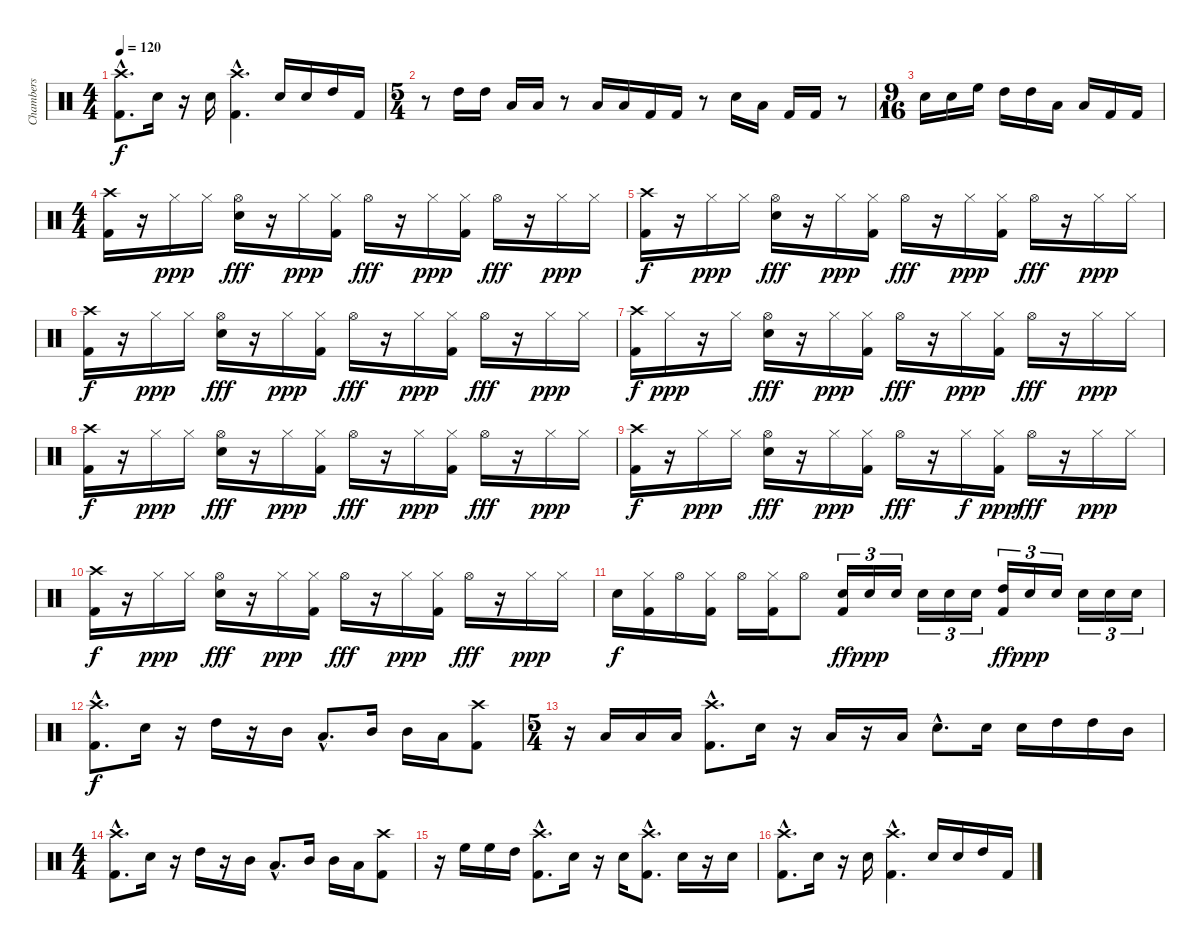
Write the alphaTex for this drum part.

\track ("Chambers" "Chambers") {instrument percussion}
\staff {score}
\articulation defaults
\ts (4 4)
\tempo 120
\clef neutral
\ks c
("Crash high (hit)"{hac} "Kick (hit) 2"{hac}).8{d dy f} "Electric Snare (hit)".16 r.16 "Electric Snare (hit)".16 ("Crash high (hit)"{hac} "Kick (hit) 2"{hac}).4{d} "Electric Snare (hit)".16 "Electric Snare (hit)".16 "High Tom (hit)".16 "Kick (hit) 2".16 |
\ts (5 4)
r.8 "High Tom (hit)".16 "High Tom (hit)".16 "Low Tom (hit)".16 "Low Tom (hit)".16 r.8 "Low Tom (hit)".16 "Low Tom (hit)".16 "Kick (hit) 2".16 "Kick (hit) 2".16 r.8 "Electric Snare (hit)".16 "Low Tom (hit)".16 "Kick (hit) 2".16 "Kick (hit) 2".16 r.8 |
\ts (9 16)
"Electric Snare (hit)".16 "Electric Snare (hit)".16 "High Floor Tom (hit)".16 "High Tom (hit)".16 "High Tom (hit)".16 "Low Tom (hit)".16 "Low Tom (hit)".16 "Kick (hit) 2".16 "Kick (hit) 2".16 |
\ts (4 4)
("Crash high (hit)" "Kick (hit) 2").16 r.16 "Hi-Hat (closed)".16{dy ppp} "Hi-Hat (closed)".16 ("Hi-Hat (open)" "Electric Snare (hit)").16{dy fff} r.16 "Hi-Hat (closed)".16{dy ppp} ("Hi-Hat (closed)" "Kick (hit) 2").16 "Hi-Hat (open)".16{dy fff} r.16 "Hi-Hat (closed)".16{dy ppp} ("Hi-Hat (closed)" "Kick (hit) 2").16 "Hi-Hat (open)".16{dy fff} r.16 "Hi-Hat (closed)".16{dy ppp} "Hi-Hat (closed)".16 |
("Crash high (hit)" "Kick (hit) 2").16{dy f} r.16 "Hi-Hat (closed)".16{dy ppp} "Hi-Hat (closed)".16 ("Hi-Hat (open)" "Electric Snare (hit)").16{dy fff} r.16 "Hi-Hat (closed)".16{dy ppp} ("Hi-Hat (closed)" "Kick (hit) 2").16 "Hi-Hat (open)".16{dy fff} r.16 "Hi-Hat (closed)".16{dy ppp} ("Hi-Hat (closed)" "Kick (hit) 2").16 "Hi-Hat (open)".16{dy fff} r.16 "Hi-Hat (closed)".16{dy ppp} "Hi-Hat (closed)".16 |
("Crash high (hit)" "Kick (hit) 2").16{dy f} r.16 "Hi-Hat (closed)".16{dy ppp} "Hi-Hat (closed)".16 ("Hi-Hat (open)" "Electric Snare (hit)").16{dy fff} r.16 "Hi-Hat (closed)".16{dy ppp} ("Hi-Hat (closed)" "Kick (hit) 2").16 "Hi-Hat (open)".16{dy fff} r.16 "Hi-Hat (closed)".16{dy ppp} ("Hi-Hat (closed)" "Kick (hit) 2").16 "Hi-Hat (open)".16{dy fff} r.16 "Hi-Hat (closed)".16{dy ppp} "Hi-Hat (closed)".16 |
("Crash high (hit)" "Kick (hit) 2").16{dy f} "Hi-Hat (closed)".16{dy ppp} r.16 "Hi-Hat (closed)".16 ("Hi-Hat (open)" "Electric Snare (hit)").16{dy fff} r.16 "Hi-Hat (closed)".16{dy ppp} ("Hi-Hat (closed)" "Kick (hit) 2").16 "Hi-Hat (open)".16{dy fff} r.16 "Hi-Hat (closed)".16{dy ppp} ("Hi-Hat (closed)" "Kick (hit) 2").16 "Hi-Hat (open)".16{dy fff} r.16 "Hi-Hat (closed)".16{dy ppp} "Hi-Hat (closed)".16 |
("Crash high (hit)" "Kick (hit) 2").16{dy f} r.16 "Hi-Hat (closed)".16{dy ppp} "Hi-Hat (closed)".16 ("Hi-Hat (open)" "Electric Snare (hit)").16{dy fff} r.16 "Hi-Hat (closed)".16{dy ppp} ("Hi-Hat (closed)" "Kick (hit) 2").16 "Hi-Hat (open)".16{dy fff} r.16 "Hi-Hat (closed)".16{dy ppp} ("Hi-Hat (closed)" "Kick (hit) 2").16 "Hi-Hat (open)".16{dy fff} r.16 "Hi-Hat (closed)".16{dy ppp} "Hi-Hat (closed)".16 |
("Crash high (hit)" "Kick (hit) 2").16{dy f} r.16 "Hi-Hat (closed)".16{dy ppp} "Hi-Hat (closed)".16 ("Hi-Hat (open)" "Electric Snare (hit)").16{dy fff} r.16 "Hi-Hat (closed)".16{dy ppp} ("Hi-Hat (closed)" "Kick (hit) 2").16 "Hi-Hat (open)".16{dy fff} r.16 "Hi-Hat (closed)".16{dy f} ("Hi-Hat (closed)" "Kick (hit) 2").16{dy ppp} "Hi-Hat (open)".16{dy fff} r.16 "Hi-Hat (closed)".16{dy ppp} "Hi-Hat (closed)".16 |
("Crash high (hit)" "Kick (hit) 2").16{dy f} r.16 "Hi-Hat (closed)".16{dy ppp} "Hi-Hat (closed)".16 ("Hi-Hat (open)" "Electric Snare (hit)").16{dy fff} r.16 "Hi-Hat (closed)".16{dy ppp} ("Hi-Hat (closed)" "Kick (hit) 2").16 "Hi-Hat (open)".16{dy fff} r.16 "Hi-Hat (closed)".16{dy ppp} ("Hi-Hat (closed)" "Kick (hit) 2").16 "Hi-Hat (open)".16{dy fff} r.16 "Hi-Hat (closed)".16{dy ppp} "Hi-Hat (closed)".16 |
"Electric Snare (hit)".16{dy f} ("Hi-Hat (closed)" "Kick (hit) 2").16 "Hi-Hat (open)".16 ("Hi-Hat (closed)" "Kick (hit) 2").16 "Hi-Hat (open)".16 ("Hi-Hat (closed)" "Kick (hit) 2").16 "Hi-Hat (open)".8 ("Electric Snare (hit)" "Kick (hit) 2").16{tu (3 2) dy ff} "Electric Snare (hit)".16{tu (3 2) dy ppp} "Electric Snare (hit)".16{tu (3 2)} "Electric Snare (hit)".16{tu (3 2)} "Electric Snare (hit)".16{tu (3 2)} "Electric Snare (hit)".16{tu (3 2)} ("High Tom (hit)" "Kick (hit) 2").16{tu (3 2) dy ff} "Electric Snare (hit)".16{tu (3 2) dy ppp} "Electric Snare (hit)".16{tu (3 2)} "Electric Snare (hit)".16{tu (3 2)} "Electric Snare (hit)".16{tu (3 2)} "Electric Snare (hit)".16{tu (3 2)} |
("Crash high (hit)"{hac} "Kick (hit) 2"{hac}).8{d dy f} "Electric Snare (hit)".16 r.16 "High Tom (hit)".16 r.16 "Mid Tom (hit)".16 "Low Tom (hit)"{hac}.8{d} "Mid Tom (hit)".16 "Mid Tom (hit)".16 "Low Tom (hit)".16 ("Crash high (hit)" "Kick (hit) 2").8 |
\ts (5 4)
r.16 "Low Tom (hit)".16 "Low Tom (hit)".16 "Low Tom (hit)".16 ("Crash high (hit)"{hac} "Kick (hit) 2"{hac}).8{d} "Electric Snare (hit)".16 r.16 "Low Tom (hit)".16 r.16 "Low Tom (hit)".16 "Electric Snare (hit)"{hac}.8{d} "Electric Snare (hit)".16 "Electric Snare (hit)".16 "High Tom (hit)".16 "High Tom (hit)".16 "Mid Tom (hit)".16 |
\ts (4 4)
("Crash high (hit)"{hac} "Kick (hit) 2"{hac}).8{d} "Electric Snare (hit)".16 r.16 "High Tom (hit)".16 r.16 "Mid Tom (hit)".16 "Low Tom (hit)"{hac}.8{d} "Mid Tom (hit)".16 "Mid Tom (hit)".16 "Low Tom (hit)".16 ("Crash high (hit)" "Kick (hit) 2").8 |
r.16 "High Floor Tom (hit)".16 "High Floor Tom (hit)".16 "High Tom (hit)".16 ("Crash high (hit)"{hac} "Kick (hit) 2"{hac}).8{d} "Electric Snare (hit)".16 r.16 "Electric Snare (hit)".16 ("Crash high (hit)"{hac} "Kick (hit) 2"{hac}).8{d} "Electric Snare (hit)".16 r.16 "Electric Snare (hit)".16 |
("Crash high (hit)"{hac} "Kick (hit) 2"{hac}).8{d} "Electric Snare (hit)".16 r.16 "Electric Snare (hit)".16 ("Crash high (hit)"{hac} "Kick (hit) 2"{hac}).4{d} "Electric Snare (hit)".16 "Electric Snare (hit)".16 "High Tom (hit)".16 "Kick (hit) 2".16
